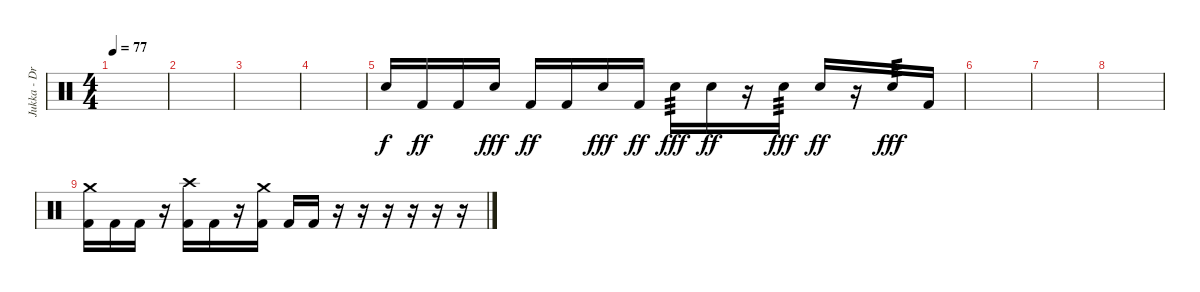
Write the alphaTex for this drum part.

\track ("Jukka - Drums" "Jukka - Dr") {instrument percussion}
\staff {score}
\articulation defaults
\ts (4 4)
\tempo 77
\clef neutral
\ks c
|
|
|
|
"Electric Snare (hit)".16 "Kick (hit) 2".16{dy ff} "Kick (hit) 2".16 "Electric Snare (hit)".16{dy fff} "Kick (hit) 2".16{dy ff} "Kick (hit) 2".16 "Electric Snare (hit)".16{dy fff} "Kick (hit) 2".16{dy ff} "Electric Snare (hit)".16{tp 3 dy fff} "Electric Snare (hit)".16{dy ff} r.16 "Electric Snare (hit)".16{tp 3 dy fff} "Electric Snare (hit)".16{dy ff} r.16 "Electric Snare (hit)".16{tp 3 dy fff} "Kick (hit) 2".16 |
|
|
|
("Crash medium (hit)" "Kick (hit) 2").16 "Kick (hit) 2".16 "Kick (hit) 2".16 r.16 ("Crash high (hit)" "Kick (hit) 2").16 "Kick (hit) 2".16 r.16 ("Crash medium (hit)" "Kick (hit) 2").16 "Kick (hit) 2".16 "Kick (hit) 2".16 r.16 r.16 r.16 r.16 r.16 r.16
